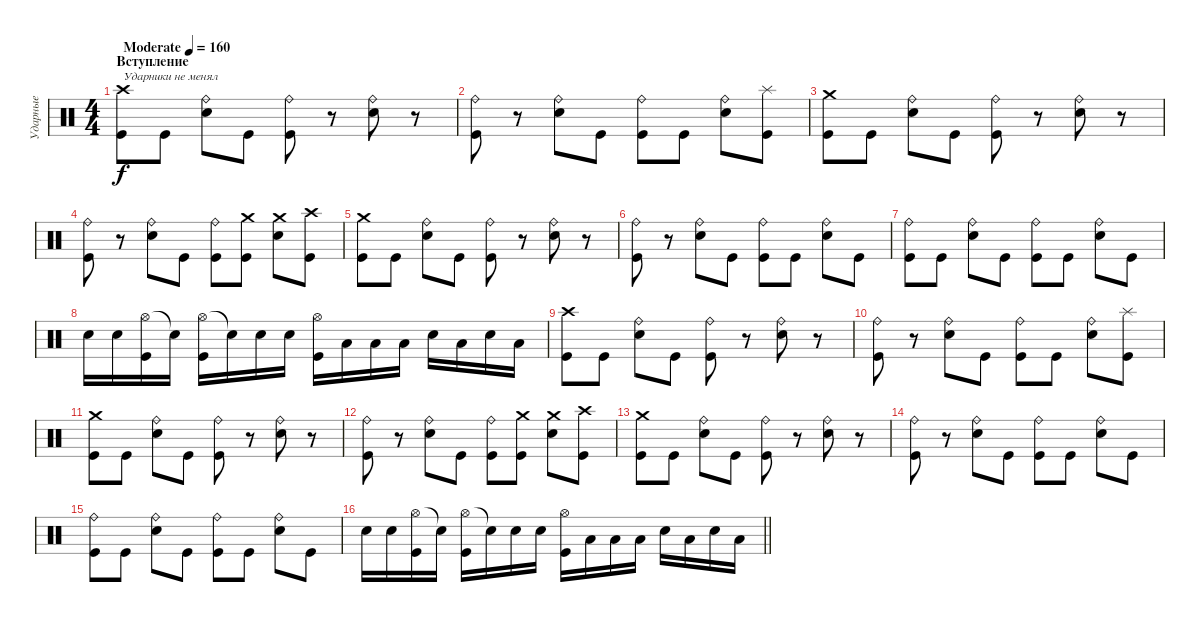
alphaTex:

\track ("Ударные" "Ударные") {instrument percussion}
\staff {score}
\articulation defaults
\ts (4 4)
\section ("" "Вступление")
\tempo (160 "Moderate")
\clef neutral
\ks c
("Crash high (hit)" "Kick (hit)").8{txt "Ударники не менял" dy f} "Kick (hit)".8 ("Ride (bell)" "Electric Snare (hit)").8 "Kick (hit)".8 ("Ride (bell)" "Kick (hit)").8 r.8 ("Ride (bell)" "Electric Snare (hit)").8 r.8 |
("Ride (bell)" "Kick (hit)").8 r.8 ("Ride (bell)" "Electric Snare (hit)").8 "Kick (hit)".8 ("Ride (bell)" "Kick (hit)").8 "Kick (hit)".8 ("Ride (bell)" "Electric Snare (hit)").8 ("Splash (hit)" "Kick (hit)").8 |
("Crash medium (hit)" "Kick (hit)").8 "Kick (hit)".8 ("Ride (bell)" "Electric Snare (hit)").8 "Kick (hit)".8 ("Ride (bell)" "Kick (hit)").8 r.8 ("Ride (bell)" "Electric Snare (hit)").8 r.8 |
("Ride (bell)" "Kick (hit)").8 r.8 ("Ride (bell)" "Electric Snare (hit)").8 "Kick (hit)".8 ("Ride (bell)" "Kick (hit)").8 ("Crash medium (hit)" "Kick (hit)").8 ("Crash medium (hit)" "Electric Snare (hit)").8 ("Crash high (hit)" "Kick (hit)").8 |
("Crash medium (hit)" "Kick (hit)").8 "Kick (hit)".8 ("Ride (bell)" "Electric Snare (hit)").8 "Kick (hit)".8 ("Ride (bell)" "Kick (hit)").8 r.8 ("Ride (bell)" "Electric Snare (hit)").8 r.8 |
("Ride (bell)" "Kick (hit)").8 r.8 ("Ride (bell)" "Electric Snare (hit)").8 "Kick (hit)".8 ("Ride (bell)" "Kick (hit)").8 "Kick (hit)".8 ("Ride (bell)" "Electric Snare (hit)").8 "Kick (hit)".8 |
("Ride (bell)" "Kick (hit)").8 "Kick (hit)".8 ("Ride (bell)" "Electric Snare (hit)").8 "Kick (hit)".8 ("Ride (bell)" "Kick (hit)").8 "Kick (hit)".8 ("Ride (bell)" "Electric Snare (hit)").8 "Kick (hit)".8 |
"Electric Snare (hit)".16 "Electric Snare (hit)".16 ("Hi-Hat (open)" "Kick (hit)").16 "Snare (hit)"{t}.16 ("Hi-Hat (open)" "Kick (hit)").16 "Snare (hit)"{t}.16 "Electric Snare (hit)".16 "Electric Snare (hit)".16 ("Hi-Hat (open)" "Kick (hit)").16 "Low Tom (hit)".16 "Low Tom (hit)".16 "Low Tom (hit)".16 "Electric Snare (hit)".16 "Low Tom (hit)".16 "Electric Snare (hit)".16 "Low Tom (hit)".16 |
("Crash high (hit)" "Kick (hit)").8 "Kick (hit)".8 ("Ride (bell)" "Electric Snare (hit)").8 "Kick (hit)".8 ("Ride (bell)" "Kick (hit)").8 r.8 ("Ride (bell)" "Electric Snare (hit)").8 r.8 |
("Ride (bell)" "Kick (hit)").8 r.8 ("Ride (bell)" "Electric Snare (hit)").8 "Kick (hit)".8 ("Ride (bell)" "Kick (hit)").8 "Kick (hit)".8 ("Ride (bell)" "Electric Snare (hit)").8 ("Splash (hit)" "Kick (hit)").8 |
("Crash medium (hit)" "Kick (hit)").8 "Kick (hit)".8 ("Ride (bell)" "Electric Snare (hit)").8 "Kick (hit)".8 ("Ride (bell)" "Kick (hit)").8 r.8 ("Ride (bell)" "Electric Snare (hit)").8 r.8 |
("Ride (bell)" "Kick (hit)").8 r.8 ("Ride (bell)" "Electric Snare (hit)").8 "Kick (hit)".8 ("Ride (bell)" "Kick (hit)").8 ("Crash medium (hit)" "Kick (hit)").8 ("Crash medium (hit)" "Electric Snare (hit)").8 ("Crash high (hit)" "Kick (hit)").8 |
("Crash medium (hit)" "Kick (hit)").8 "Kick (hit)".8 ("Ride (bell)" "Electric Snare (hit)").8 "Kick (hit)".8 ("Ride (bell)" "Kick (hit)").8 r.8 ("Ride (bell)" "Electric Snare (hit)").8 r.8 |
("Ride (bell)" "Kick (hit)").8 r.8 ("Ride (bell)" "Electric Snare (hit)").8 "Kick (hit)".8 ("Ride (bell)" "Kick (hit)").8 "Kick (hit)".8 ("Ride (bell)" "Electric Snare (hit)").8 "Kick (hit)".8 |
("Ride (bell)" "Kick (hit)").8 "Kick (hit)".8 ("Ride (bell)" "Electric Snare (hit)").8 "Kick (hit)".8 ("Ride (bell)" "Kick (hit)").8 "Kick (hit)".8 ("Ride (bell)" "Electric Snare (hit)").8 "Kick (hit)".8 |
\barLineRight lightlight "Electric Snare (hit)".16 "Electric Snare (hit)".16
("Hi-Hat (open)" "Kick (hit)").16 "Snare (hit)"{t}.16 ("Hi-Hat (open)" "Kick (hit)").16 "Snare (hit)"{t}.16 "Electric Snare (hit)".16 "Electric Snare (hit)".16 ("Hi-Hat (open)" "Kick (hit)").16 "Low Tom (hit)".16 "Low Tom (hit)".16 "Low Tom (hit)".16 "Electric Snare (hit)".16 "Low Tom (hit)".16 "Electric Snare (hit)".16 "Low Tom (hit)".16
